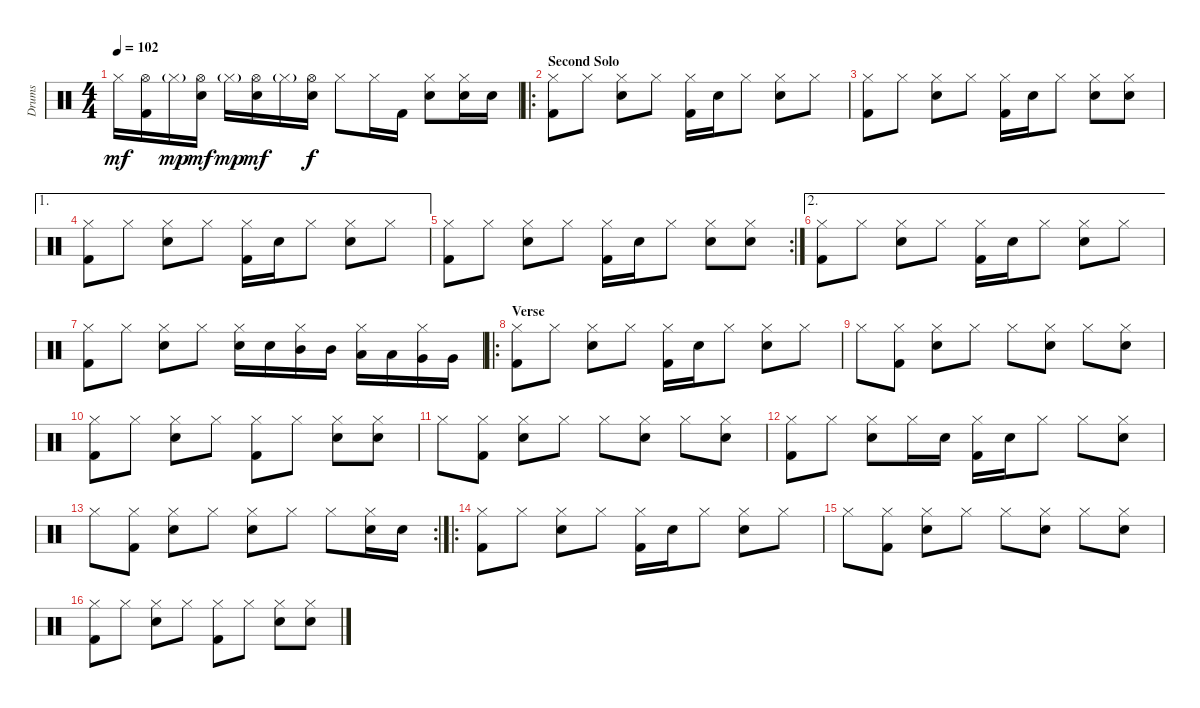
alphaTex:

\track ("Drums" "Drums") {instrument percussion}
\staff {score}
\articulation defaults
\ts (4 4)
\tempo 102
\clef neutral
\ks c "Hi-Hat (closed)".16{dy mf}
("Hi-Hat (open)" "Kick (hit) 2").16 "Hi-Hat (closed)"{g}.16{dy mp} ("Hi-Hat (open)" "Electric Snare (hit)").16{dy mf} "Hi-Hat (closed)"{g}.16{dy mp} ("Hi-Hat (open)" "Electric Snare (hit)").16{dy mf} "Hi-Hat (closed)"{g}.16 ("Hi-Hat (open)" "Electric Snare (hit)").16{dy f} "Hi-Hat (closed)".8 "Hi-Hat (closed)".16 "Kick (hit) 2".16 ("Hi-Hat (closed)" "Electric Snare (hit)").8 ("Hi-Hat (closed)" "Electric Snare (hit)").16 "Electric Snare (hit)".16 |
\ro
\section ("" "Second Solo")
("Hi-Hat (closed)" "Kick (hit) 2").8 "Hi-Hat (closed)".8 ("Hi-Hat (closed)" "Electric Snare (hit)").8 "Hi-Hat (closed)".8 ("Hi-Hat (closed)" "Kick (hit) 2").16 "Electric Snare (hit)".16 "Hi-Hat (closed)".8 ("Hi-Hat (closed)" "Electric Snare (hit)").8 "Hi-Hat (closed)".8 |
("Hi-Hat (closed)" "Kick (hit) 2").8 "Hi-Hat (closed)".8 ("Hi-Hat (closed)" "Electric Snare (hit)").8 "Hi-Hat (closed)".8 ("Hi-Hat (closed)" "Kick (hit) 2").16 "Electric Snare (hit)".16 "Hi-Hat (closed)".8 ("Hi-Hat (closed)" "Electric Snare (hit)").8 ("Hi-Hat (closed)" "Electric Snare (hit)").8 |
\ae 1
("Hi-Hat (closed)" "Kick (hit) 2").8 "Hi-Hat (closed)".8 ("Hi-Hat (closed)" "Electric Snare (hit)").8 "Hi-Hat (closed)".8 ("Hi-Hat (closed)" "Kick (hit) 2").16 "Electric Snare (hit)".16 "Hi-Hat (closed)".8 ("Hi-Hat (closed)" "Electric Snare (hit)").8 "Hi-Hat (closed)".8 |
\rc 2
("Hi-Hat (closed)" "Kick (hit) 2").8 "Hi-Hat (closed)".8 ("Hi-Hat (closed)" "Electric Snare (hit)").8 "Hi-Hat (closed)".8 ("Hi-Hat (closed)" "Kick (hit) 2").16 "Electric Snare (hit)".16 "Hi-Hat (closed)".8 ("Hi-Hat (closed)" "Electric Snare (hit)").8 ("Hi-Hat (closed)" "Electric Snare (hit)").8 |
\ae 2
("Hi-Hat (closed)" "Kick (hit) 2").8 "Hi-Hat (closed)".8 ("Hi-Hat (closed)" "Electric Snare (hit)").8 "Hi-Hat (closed)".8 ("Hi-Hat (closed)" "Kick (hit) 2").16 "Electric Snare (hit)".16 "Hi-Hat (closed)".8 ("Hi-Hat (closed)" "Electric Snare (hit)").8 "Hi-Hat (closed)".8 |
("Hi-Hat (closed)" "Kick (hit) 2").8 "Hi-Hat (closed)".8 ("Hi-Hat (closed)" "Electric Snare (hit)").8 "Hi-Hat (closed)".8 ("Hi-Hat (closed)" "Electric Snare (hit)").16 "Electric Snare (hit)".16 ("Hi-Hat (closed)" "Mid Tom (hit)").16 "Mid Tom (hit)".16 ("Hi-Hat (closed)" "Low Tom (hit)").16 "Low Tom (hit)".16 ("Hi-Hat (closed)" "Very Low Tom (hit)").16 "Very Low Tom (hit)".16 |
\ro
\section ("" "Verse")
("Hi-Hat (closed)" "Kick (hit) 2").8 "Hi-Hat (closed)".8 ("Hi-Hat (closed)" "Electric Snare (hit)").8 "Hi-Hat (closed)".8 ("Hi-Hat (closed)" "Kick (hit) 2").16 "Electric Snare (hit)".16 "Hi-Hat (closed)".8 ("Hi-Hat (closed)" "Electric Snare (hit)").8 "Hi-Hat (closed)".8 |
"Hi-Hat (closed)".8 ("Hi-Hat (closed)" "Kick (hit) 2").8 ("Hi-Hat (closed)" "Electric Snare (hit)").8 "Hi-Hat (closed)".8 "Hi-Hat (closed)".8 ("Hi-Hat (closed)" "Electric Snare (hit)").8 "Hi-Hat (closed)".8 ("Hi-Hat (closed)" "Electric Snare (hit)").8 |
("Hi-Hat (closed)" "Kick (hit) 2").8 "Hi-Hat (closed)".8 ("Hi-Hat (closed)" "Electric Snare (hit)").8 "Hi-Hat (closed)".8 ("Hi-Hat (closed)" "Kick (hit) 2").8 "Hi-Hat (closed)".8 ("Hi-Hat (closed)" "Electric Snare (hit)").8 ("Hi-Hat (closed)" "Electric Snare (hit)").8 |
"Hi-Hat (closed)".8 ("Hi-Hat (closed)" "Kick (hit) 2").8 ("Hi-Hat (closed)" "Electric Snare (hit)").8 "Hi-Hat (closed)".8 "Hi-Hat (closed)".8 ("Hi-Hat (closed)" "Electric Snare (hit)").8 "Hi-Hat (closed)".8 ("Hi-Hat (closed)" "Electric Snare (hit)").8 |
("Hi-Hat (closed)" "Kick (hit) 2").8 "Hi-Hat (closed)".8 ("Hi-Hat (closed)" "Electric Snare (hit)").8 "Hi-Hat (closed)".16 "Electric Snare (hit)".16 ("Hi-Hat (closed)" "Kick (hit) 2").16 "Electric Snare (hit)".16 "Hi-Hat (closed)".8 "Hi-Hat (closed)".8 ("Hi-Hat (closed)" "Electric Snare (hit)").8 |
\rc 2 "Hi-Hat (closed)".8
("Hi-Hat (closed)" "Kick (hit) 2").8 ("Hi-Hat (closed)" "Electric Snare (hit)").8 "Hi-Hat (closed)".8 ("Hi-Hat (closed)" "Electric Snare (hit)").8 "Hi-Hat (closed)".8 "Hi-Hat (closed)".8 ("Hi-Hat (closed)" "Electric Snare (hit)").16 "Electric Snare (hit)".16 |
\ro
("Hi-Hat (closed)" "Kick (hit) 2").8 "Hi-Hat (closed)".8 ("Hi-Hat (closed)" "Electric Snare (hit)").8 "Hi-Hat (closed)".8 ("Hi-Hat (closed)" "Kick (hit) 2").16 "Electric Snare (hit)".16 "Hi-Hat (closed)".8 ("Hi-Hat (closed)" "Electric Snare (hit)").8 "Hi-Hat (closed)".8 |
"Hi-Hat (closed)".8 ("Hi-Hat (closed)" "Kick (hit) 2").8 ("Hi-Hat (closed)" "Electric Snare (hit)").8 "Hi-Hat (closed)".8 "Hi-Hat (closed)".8 ("Hi-Hat (closed)" "Electric Snare (hit)").8 "Hi-Hat (closed)".8 ("Hi-Hat (closed)" "Electric Snare (hit)").8 |
("Hi-Hat (closed)" "Kick (hit) 2").8 "Hi-Hat (closed)".8 ("Hi-Hat (closed)" "Electric Snare (hit)").8 "Hi-Hat (closed)".8 ("Hi-Hat (closed)" "Kick (hit) 2").8 "Hi-Hat (closed)".8 ("Hi-Hat (closed)" "Electric Snare (hit)").8 ("Hi-Hat (closed)" "Electric Snare (hit)").8
